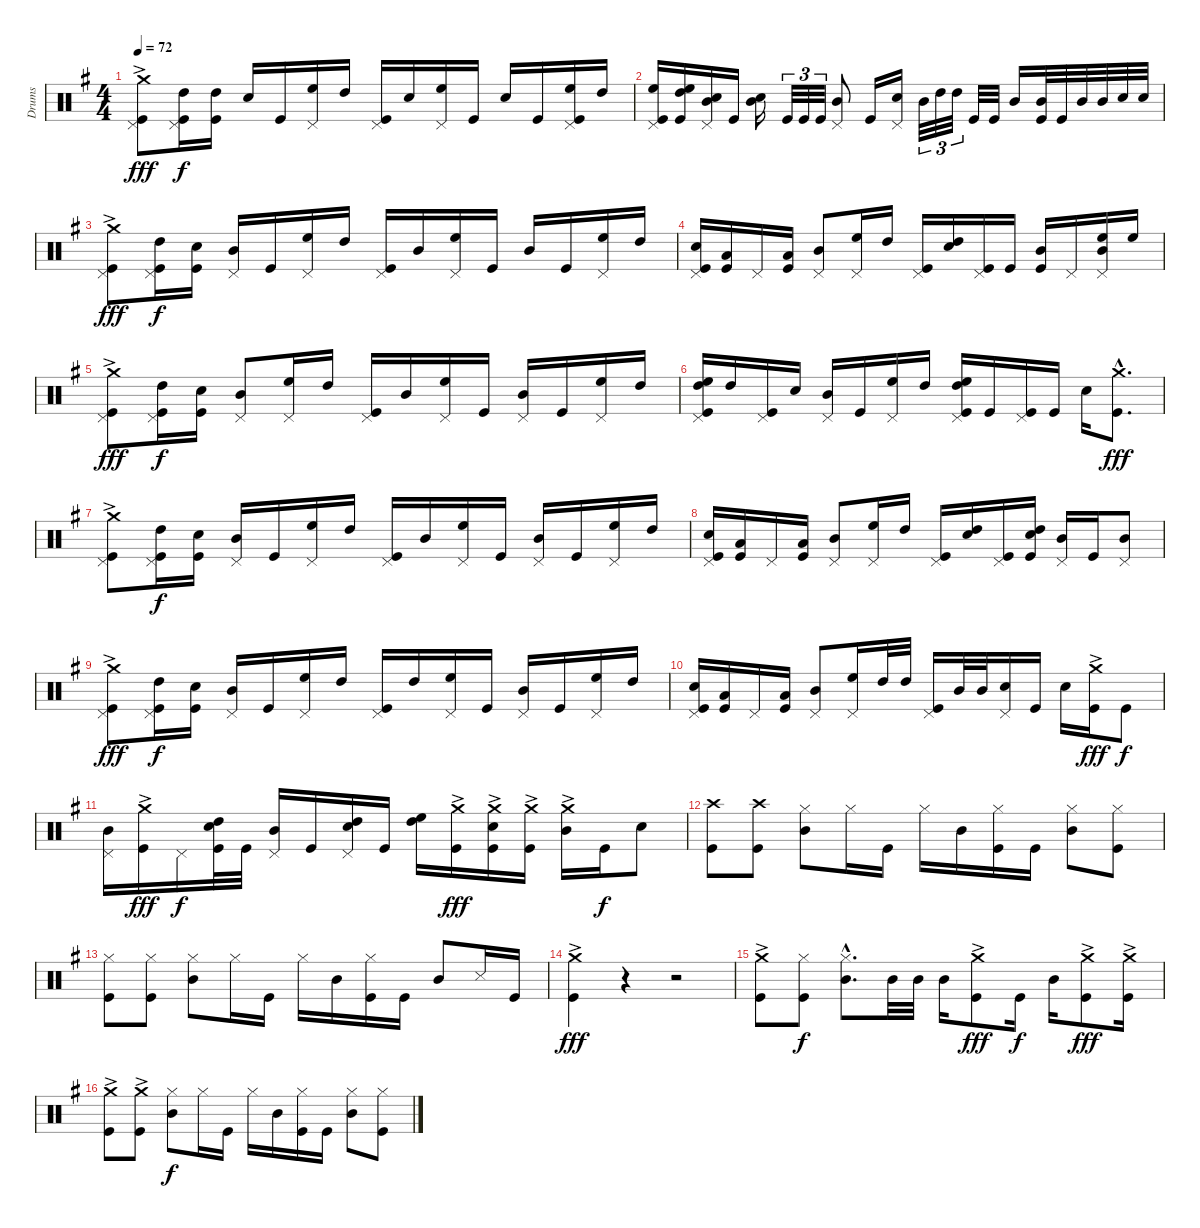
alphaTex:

\track ("Drums" "Drums") {instrument percussion}
\staff {score}
\articulation defaults
\ts (4 4)
\tempo 72
\clef neutral
\ks g
("Crash medium (hit)"{ac} "Kick (hit)" "Pedal Hi-Hat (hit)").8{dy fff} ("High Tom (hit)" "Kick (hit)" "Pedal Hi-Hat (hit)").16{dy f} ("High Tom (hit)" "Kick (hit)").16 "Electric Snare (hit)".16 "Kick (hit)".16 ("High Floor Tom (hit)" "Pedal Hi-Hat (hit)").16 "High Tom (hit)".16 ("Kick (hit)" "Pedal Hi-Hat (hit)").16 "Electric Snare (hit)".16 ("High Floor Tom (hit)" "Pedal Hi-Hat (hit)").16 "Kick (hit)".16 "Electric Snare (hit)".16 "Kick (hit)".16 ("High Floor Tom (hit)" "Kick (hit)" "Pedal Hi-Hat (hit)").16 "High Tom (hit)".16 |
("High Floor Tom (hit)" "Kick (hit)" "Pedal Hi-Hat (hit)").16 ("High Floor Tom (hit)" "High Tom (hit)" "Kick (hit)").16 ("Electric Snare (hit)" "Mid Tom (hit)" "Pedal Hi-Hat (hit)").16 "Kick (hit)".16 ("Electric Snare (hit)" "Mid Tom (hit)").16 "Kick (hit)".32{tu (3 2)} "Kick (hit)".32{tu (3 2)} "Kick (hit)".32{tu (3 2)} ("Mid Tom (hit)" "Pedal Hi-Hat (hit)").8 "Kick (hit)".16 ("Electric Snare (hit)" "Pedal Hi-Hat (hit)").16 "Mid Tom (hit)".32{tu (3 2)} "High Tom (hit)".32{tu (3 2)} "High Tom (hit)".32{tu (3 2)} "Kick (hit)".32 "Kick (hit)".32 "Mid Tom (hit)".16 ("Mid Tom (hit)" "Kick (hit)").32 "Kick (hit)".32 "Mid Tom (hit)".32 "Mid Tom (hit)".32 "Electric Snare (hit)".32 "Electric Snare (hit)".32 |
("Crash medium (hit)"{ac} "Kick (hit)" "Pedal Hi-Hat (hit)").8{dy fff} ("High Tom (hit)" "Kick (hit)" "Pedal Hi-Hat (hit)").16{dy f} ("Electric Snare (hit)" "Kick (hit)").16 ("Mid Tom (hit)" "Pedal Hi-Hat (hit)").16 "Kick (hit)".16 ("High Floor Tom (hit)" "Pedal Hi-Hat (hit)").16 "High Tom (hit)".16 ("Kick (hit)" "Pedal Hi-Hat (hit)").16 "Mid Tom (hit)".16 ("High Floor Tom (hit)" "Pedal Hi-Hat (hit)").16 "Kick (hit)".16 "Mid Tom (hit)".16 "Kick (hit)".16 ("High Floor Tom (hit)" "Pedal Hi-Hat (hit)").16 "High Tom (hit)".16 |
("Electric Snare (hit)" "Kick (hit)" "Pedal Hi-Hat (hit)").16 ("Low Tom (hit)" "Kick (hit)").16 "Pedal Hi-Hat (hit)".16 ("Low Tom (hit)" "Kick (hit)").16 ("Mid Tom (hit)" "Pedal Hi-Hat (hit)").8 ("High Floor Tom (hit)" "Pedal Hi-Hat (hit)").16 "High Tom (hit)".16 ("Kick (hit)" "Pedal Hi-Hat (hit)").16 ("High Tom (hit)" "Electric Snare (hit)").16 ("Kick (hit)" "Pedal Hi-Hat (hit)").16 "Kick (hit)".16 ("Mid Tom (hit)" "Kick (hit)").16 "Pedal Hi-Hat (hit)".16 ("High Floor Tom (hit)" "Mid Tom (hit)" "Pedal Hi-Hat (hit)").16 "High Floor Tom (hit)".16 |
("Crash medium (hit)"{ac} "Kick (hit)" "Pedal Hi-Hat (hit)").8{dy fff} ("High Tom (hit)" "Kick (hit)" "Pedal Hi-Hat (hit)").16{dy f} ("Electric Snare (hit)" "Kick (hit)").16 ("Mid Tom (hit)" "Pedal Hi-Hat (hit)").8 ("High Floor Tom (hit)" "Pedal Hi-Hat (hit)").16 "High Tom (hit)".16 ("Kick (hit)" "Pedal Hi-Hat (hit)").16 "Mid Tom (hit)".16 ("High Floor Tom (hit)" "Pedal Hi-Hat (hit)").16 "Kick (hit)".16 ("Mid Tom (hit)" "Pedal Hi-Hat (hit)").16 "Kick (hit)".16 ("High Floor Tom (hit)" "Pedal Hi-Hat (hit)").16 "High Tom (hit)".16 |
("High Floor Tom (hit)" "High Tom (hit)" "Kick (hit)" "Pedal Hi-Hat (hit)").16 "High Tom (hit)".16 ("Kick (hit)" "Pedal Hi-Hat (hit)").16 "Electric Snare (hit)".16 ("Mid Tom (hit)" "Pedal Hi-Hat (hit)").16 "Kick (hit)".16 ("High Floor Tom (hit)" "Pedal Hi-Hat (hit)").16 "High Tom (hit)".16 ("High Floor Tom (hit)" "High Tom (hit)" "Kick (hit)" "Pedal Hi-Hat (hit)").16 "Kick (hit)".16 ("Kick (hit)" "Pedal Hi-Hat (hit)").16 "Kick (hit)".16 "Electric Snare (hit)".16 ("Crash medium (hit)"{hac} "Kick (hit)"{hac}).8{d dy fff} |
("Crash medium (hit)"{ac} "Kick (hit)" "Pedal Hi-Hat (hit)").8 ("High Tom (hit)" "Kick (hit)" "Pedal Hi-Hat (hit)").16{dy f} ("Electric Snare (hit)" "Kick (hit)").16 ("Mid Tom (hit)" "Pedal Hi-Hat (hit)").16 "Kick (hit)".16 ("High Floor Tom (hit)" "Pedal Hi-Hat (hit)").16 "High Tom (hit)".16 ("Kick (hit)" "Pedal Hi-Hat (hit)").16 "Mid Tom (hit)".16 ("High Floor Tom (hit)" "Pedal Hi-Hat (hit)").16 "Kick (hit)".16 ("Mid Tom (hit)" "Pedal Hi-Hat (hit)").16 "Kick (hit)".16 ("High Floor Tom (hit)" "Pedal Hi-Hat (hit)").16 "High Tom (hit)".16 |
("Electric Snare (hit)" "Kick (hit)" "Pedal Hi-Hat (hit)").16 ("Low Tom (hit)" "Kick (hit)").16 "Pedal Hi-Hat (hit)".16 ("Low Tom (hit)" "Kick (hit)").16 ("Mid Tom (hit)" "Pedal Hi-Hat (hit)").8 ("High Floor Tom (hit)" "Pedal Hi-Hat (hit)").16 "High Tom (hit)".16 ("Kick (hit)" "Pedal Hi-Hat (hit)").16 ("High Tom (hit)" "Electric Snare (hit)").16 ("Kick (hit)" "Pedal Hi-Hat (hit)").16 ("High Tom (hit)" "Electric Snare (hit)" "Kick (hit)").16 ("Mid Tom (hit)" "Pedal Hi-Hat (hit)").16 "Kick (hit)".16 ("Mid Tom (hit)" "Pedal Hi-Hat (hit)").8 |
("Crash medium (hit)"{ac} "Kick (hit)" "Pedal Hi-Hat (hit)").8{dy fff} ("High Tom (hit)" "Kick (hit)" "Pedal Hi-Hat (hit)").16{dy f} ("Electric Snare (hit)" "Kick (hit)").16 ("Mid Tom (hit)" "Pedal Hi-Hat (hit)").16 "Kick (hit)".16 ("High Floor Tom (hit)" "Pedal Hi-Hat (hit)").16 "High Tom (hit)".16 ("Kick (hit)" "Pedal Hi-Hat (hit)").16 "High Tom (hit)".16 ("High Floor Tom (hit)" "Pedal Hi-Hat (hit)").16 "Kick (hit)".16 ("Mid Tom (hit)" "Pedal Hi-Hat (hit)").16 "Kick (hit)".16 ("High Floor Tom (hit)" "Pedal Hi-Hat (hit)").16 "High Tom (hit)".16 |
("Electric Snare (hit)" "Kick (hit)" "Pedal Hi-Hat (hit)").16 ("Low Tom (hit)" "Kick (hit)").16 "Pedal Hi-Hat (hit)".16 ("Low Tom (hit)" "Kick (hit)").16 ("Mid Tom (hit)" "Pedal Hi-Hat (hit)").8 ("High Floor Tom (hit)" "Pedal Hi-Hat (hit)").16 "High Tom (hit)".32 "High Tom (hit)".32 ("Kick (hit)" "Pedal Hi-Hat (hit)").16 "Mid Tom (hit)".32 "Mid Tom (hit)".32 ("Electric Snare (hit)" "Pedal Hi-Hat (hit)").16 "Kick (hit)".16 "Electric Snare (hit)".16 ("Crash medium (hit)"{ac} "Kick (hit)").16{dy fff} "Kick (hit)".8{dy f} |
("Mid Tom (hit)" "Pedal Hi-Hat (hit)").16 ("Crash medium (hit)"{ac} "Kick (hit)").16{dy fff} "Pedal Hi-Hat (hit)".16{dy f} ("High Tom (hit)" "Electric Snare (hit)" "Kick (hit)").32 "Kick (hit)".32 ("Mid Tom (hit)" "Pedal Hi-Hat (hit)").16 "Kick (hit)".16 ("High Tom (hit)" "Electric Snare (hit)" "Pedal Hi-Hat (hit)").16 "Kick (hit)".16 ("High Floor Tom (hit)" "High Tom (hit)").16 ("Crash medium (hit)"{ac} "Kick (hit)").16{dy fff} ("Crash medium (hit)"{ac} "Electric Snare (hit)" "Kick (hit)").16 ("Crash medium (hit)"{ac} "Kick (hit)").16 ("Crash medium (hit)"{ac} "Mid Tom (hit)").16 "Kick (hit)".16{dy f} "Electric Snare (hit)".8 |
("Crash high (hit)" "Kick (hit)").8 ("Crash high (hit)" "Kick (hit)").8 ("Hi-Hat (closed)" "Mid Tom (hit)").8 "Hi-Hat (closed)".16 "Kick (hit)".16 "Hi-Hat (closed)".16 "Mid Tom (hit)".16 ("Hi-Hat (closed)" "Kick (hit)").16 "Kick (hit)".16 ("Hi-Hat (closed)" "Mid Tom (hit)").8 ("Hi-Hat (closed)" "Kick (hit)").8 |
("Hi-Hat (closed)" "Kick (hit)").8 ("Hi-Hat (closed)" "Kick (hit)").8 ("Hi-Hat (closed)" "Mid Tom (hit)").8 "Hi-Hat (closed)".16 "Kick (hit)".16 "Hi-Hat (closed)".16 "Mid Tom (hit)".16 ("Hi-Hat (closed)" "Kick (hit)").16 "Kick (hit)".16 "Mid Tom (hit)".8 "Snare (side stick) 3".16 "Kick (hit)".16 |
("Crash medium (hit)"{ac} "Kick (hit)").4{dy fff} r.4 r.2 |
("Crash medium (hit)"{ac} "Kick (hit)").8 ("Hi-Hat (closed)" "Kick (hit)").8{dy f} ("Hi-Hat (closed)"{hac} "Mid Tom (hit)"{hac}).8{d} "Mid Tom (hit)".32 "Mid Tom (hit)".32 "Mid Tom (hit)".16 ("Crash medium (hit)"{ac} "Kick (hit)").8{dy fff} "Kick (hit)".16{dy f} "Mid Tom (hit)".16 ("Crash medium (hit)"{ac} "Kick (hit)").8{dy fff} ("Crash medium (hit)"{ac} "Kick (hit)").16 |
("Crash medium (hit)"{ac} "Kick (hit)").8 ("Crash medium (hit)"{ac} "Kick (hit)").8 ("Hi-Hat (closed)" "Mid Tom (hit)").8{dy f} "Hi-Hat (closed)".16 "Kick (hit)".16 "Hi-Hat (closed)".16 "Mid Tom (hit)".16 ("Hi-Hat (closed)" "Kick (hit)").16 "Kick (hit)".16 ("Hi-Hat (closed)" "Mid Tom (hit)").8 ("Hi-Hat (closed)" "Kick (hit)").8
